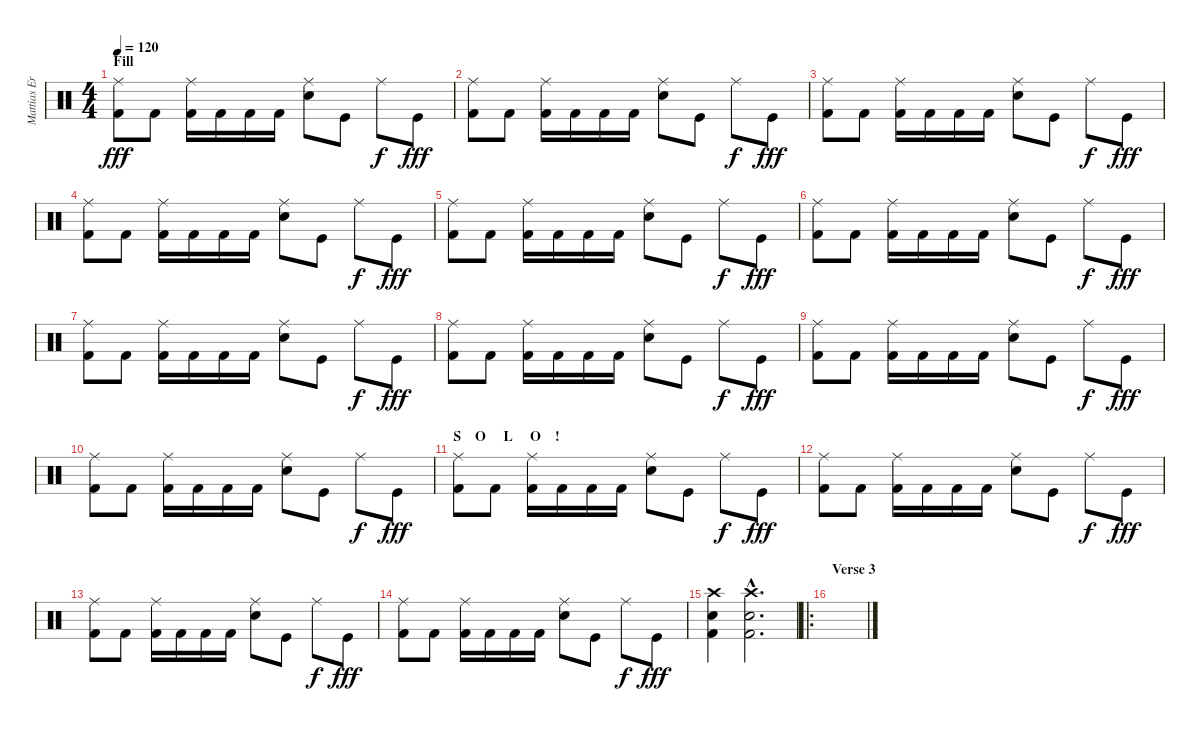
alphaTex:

\track ("Mattias Eriksson" "Mattias Er") {instrument percussion}
\staff {score}
\articulation defaults
\ts (4 4)
\section ("" "Fill")
\tempo 120
\clef neutral
\ks c
("Ride (middle)" "Kick (hit) 2").8{dy fff} "Kick (hit) 2".8 ("Ride (middle)" "Kick (hit) 2").16 "Kick (hit) 2".16 "Kick (hit) 2".16 "Kick (hit) 2".16 ("Ride (middle)" "Electric Snare (hit)").8 "Kick (hit)".8 "Ride (middle)".8{dy f} "Kick (hit)".8{dy fff} |
("Ride (middle)" "Kick (hit) 2").8 "Kick (hit) 2".8 ("Ride (middle)" "Kick (hit) 2").16 "Kick (hit) 2".16 "Kick (hit) 2".16 "Kick (hit) 2".16 ("Ride (middle)" "Electric Snare (hit)").8 "Kick (hit)".8 "Ride (middle)".8{dy f} "Kick (hit)".8{dy fff} |
("Ride (middle)" "Kick (hit) 2").8 "Kick (hit) 2".8 ("Ride (middle)" "Kick (hit) 2").16 "Kick (hit) 2".16 "Kick (hit) 2".16 "Kick (hit) 2".16 ("Ride (middle)" "Electric Snare (hit)").8 "Kick (hit)".8 "Ride (middle)".8{dy f} "Kick (hit)".8{dy fff} |
("Ride (middle)" "Kick (hit) 2").8 "Kick (hit) 2".8 ("Ride (middle)" "Kick (hit) 2").16 "Kick (hit) 2".16 "Kick (hit) 2".16 "Kick (hit) 2".16 ("Ride (middle)" "Electric Snare (hit)").8 "Kick (hit)".8 "Ride (middle)".8{dy f} "Kick (hit)".8{dy fff} |
("Ride (middle)" "Kick (hit) 2").8 "Kick (hit) 2".8 ("Ride (middle)" "Kick (hit) 2").16 "Kick (hit) 2".16 "Kick (hit) 2".16 "Kick (hit) 2".16 ("Ride (middle)" "Electric Snare (hit)").8 "Kick (hit)".8 "Ride (middle)".8{dy f} "Kick (hit)".8{dy fff} |
("Ride (middle)" "Kick (hit) 2").8 "Kick (hit) 2".8 ("Ride (middle)" "Kick (hit) 2").16 "Kick (hit) 2".16 "Kick (hit) 2".16 "Kick (hit) 2".16 ("Ride (middle)" "Electric Snare (hit)").8 "Kick (hit)".8 "Ride (middle)".8{dy f} "Kick (hit)".8{dy fff} |
("Ride (middle)" "Kick (hit) 2").8 "Kick (hit) 2".8 ("Ride (middle)" "Kick (hit) 2").16 "Kick (hit) 2".16 "Kick (hit) 2".16 "Kick (hit) 2".16 ("Ride (middle)" "Electric Snare (hit)").8 "Kick (hit)".8 "Ride (middle)".8{dy f} "Kick (hit)".8{dy fff} |
("Ride (middle)" "Kick (hit) 2").8 "Kick (hit) 2".8 ("Ride (middle)" "Kick (hit) 2").16 "Kick (hit) 2".16 "Kick (hit) 2".16 "Kick (hit) 2".16 ("Ride (middle)" "Electric Snare (hit)").8 "Kick (hit)".8 "Ride (middle)".8{dy f} "Kick (hit)".8{dy fff} |
("Ride (middle)" "Kick (hit) 2").8 "Kick (hit) 2".8 ("Ride (middle)" "Kick (hit) 2").16 "Kick (hit) 2".16 "Kick (hit) 2".16 "Kick (hit) 2".16 ("Ride (middle)" "Electric Snare (hit)").8 "Kick (hit)".8 "Ride (middle)".8{dy f} "Kick (hit)".8{dy fff} |
("Ride (middle)" "Kick (hit) 2").8 "Kick (hit) 2".8 ("Ride (middle)" "Kick (hit) 2").16 "Kick (hit) 2".16 "Kick (hit) 2".16 "Kick (hit) 2".16 ("Ride (middle)" "Electric Snare (hit)").8 "Kick (hit)".8 "Ride (middle)".8{dy f} "Kick (hit)".8{dy fff} |
\section ("" "S    O     L     O    !")
("Ride (middle)" "Kick (hit) 2").8 "Kick (hit) 2".8 ("Ride (middle)" "Kick (hit) 2").16 "Kick (hit) 2".16 "Kick (hit) 2".16 "Kick (hit) 2".16 ("Ride (middle)" "Electric Snare (hit)").8 "Kick (hit)".8 "Ride (middle)".8{dy f} "Kick (hit)".8{dy fff} |
("Ride (middle)" "Kick (hit) 2").8 "Kick (hit) 2".8 ("Ride (middle)" "Kick (hit) 2").16 "Kick (hit) 2".16 "Kick (hit) 2".16 "Kick (hit) 2".16 ("Ride (middle)" "Electric Snare (hit)").8 "Kick (hit)".8 "Ride (middle)".8{dy f} "Kick (hit)".8{dy fff} |
("Ride (middle)" "Kick (hit) 2").8 "Kick (hit) 2".8 ("Ride (middle)" "Kick (hit) 2").16 "Kick (hit) 2".16 "Kick (hit) 2".16 "Kick (hit) 2".16 ("Ride (middle)" "Electric Snare (hit)").8 "Kick (hit)".8 "Ride (middle)".8{dy f} "Kick (hit)".8{dy fff} |
("Ride (middle)" "Kick (hit) 2").8 "Kick (hit) 2".8 ("Ride (middle)" "Kick (hit) 2").16 "Kick (hit) 2".16 "Kick (hit) 2".16 "Kick (hit) 2".16 ("Ride (middle)" "Electric Snare (hit)").8 "Kick (hit)".8 "Ride (middle)".8{dy f} "Kick (hit)".8{dy fff} |
("Crash high (hit)" "Electric Snare (hit)" "Kick (hit) 2").4 ("Crash high (hit)"{hac} "Electric Snare (hit)"{hac} "Kick (hit) 2"{hac}).2{d} |
\ro
\section ("" "Verse 3")
